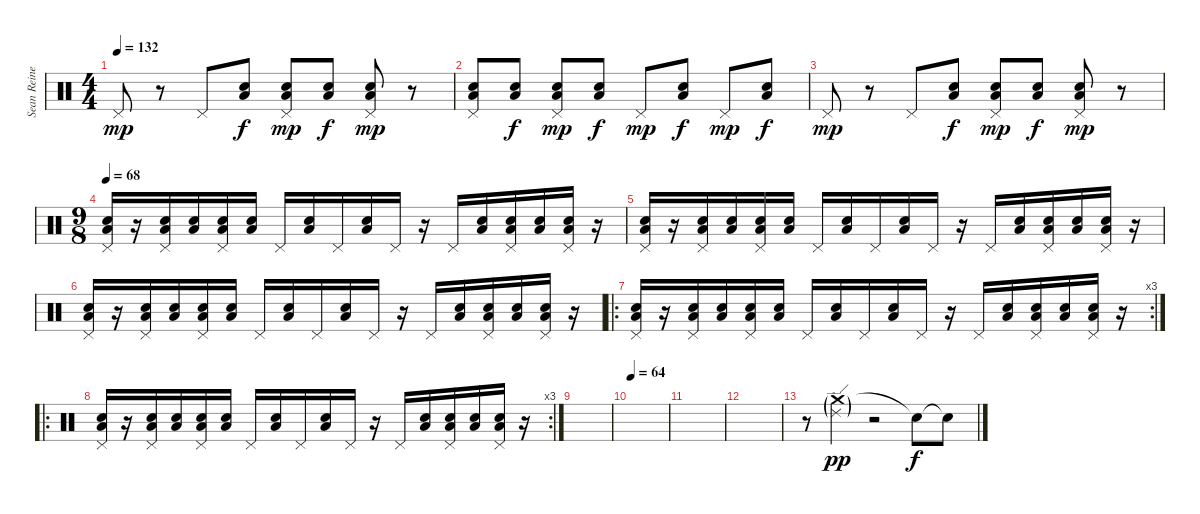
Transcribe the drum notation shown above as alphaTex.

\track ("Sean Reinert" "Sean Reine") {instrument percussion}
\staff {score}
\articulation defaults
\ts (4 4)
\tempo 132
\clef neutral
\ks c "Pedal Hi-Hat (hit)".8{dy mp}
r.8 "Pedal Hi-Hat (hit)".8 ("Snare (hit) 2" "Low Tom (hit)").8{dy f} ("Snare (hit) 2" "Low Tom (hit)" "Pedal Hi-Hat (hit)").8{dy mp} ("Snare (hit) 2" "Low Tom (hit)").8{dy f} ("Snare (hit) 2" "Low Tom (hit)" "Pedal Hi-Hat (hit)").8{dy mp} r.8 |
("Snare (hit) 2" "Low Tom (hit)" "Pedal Hi-Hat (hit)").8 ("Snare (hit) 2" "Low Tom (hit)").8{dy f} ("Snare (hit) 2" "Low Tom (hit)" "Pedal Hi-Hat (hit)").8{dy mp} ("Snare (hit) 2" "Low Tom (hit)").8{dy f} "Pedal Hi-Hat (hit)".8{dy mp} ("Snare (hit) 2" "Low Tom (hit)").8{dy f} "Pedal Hi-Hat (hit)".8{dy mp} ("Snare (hit) 2" "Low Tom (hit)").8{dy f} |
"Pedal Hi-Hat (hit)".8{dy mp} r.8 "Pedal Hi-Hat (hit)".8 ("Snare (hit) 2" "Low Tom (hit)").8{dy f} ("Snare (hit) 2" "Low Tom (hit)" "Pedal Hi-Hat (hit)").8{dy mp} ("Snare (hit) 2" "Low Tom (hit)").8{dy f} ("Snare (hit) 2" "Low Tom (hit)" "Pedal Hi-Hat (hit)").8{dy mp} r.8 |
\ts (9 8)
\tempo 68
("Snare (hit) 2" "Low Tom (hit)" "Pedal Hi-Hat (hit)").16 r.16 ("Snare (hit) 2" "Low Tom (hit)" "Pedal Hi-Hat (hit)").16 ("Snare (hit) 2" "Low Tom (hit)").16 ("Snare (hit) 2" "Low Tom (hit)" "Pedal Hi-Hat (hit)").16 ("Snare (hit) 2" "Low Tom (hit)").16 "Pedal Hi-Hat (hit)".16 ("Snare (hit) 2" "Low Tom (hit)").16 "Pedal Hi-Hat (hit)".16 ("Snare (hit) 2" "Low Tom (hit)").16 "Pedal Hi-Hat (hit)".16 r.16 "Pedal Hi-Hat (hit)".16 ("Snare (hit) 2" "Low Tom (hit)").16 ("Snare (hit) 2" "Low Tom (hit)" "Pedal Hi-Hat (hit)").16 ("Snare (hit) 2" "Low Tom (hit)").16 ("Snare (hit) 2" "Low Tom (hit)" "Pedal Hi-Hat (hit)").16 r.16 |
("Snare (hit) 2" "Low Tom (hit)" "Pedal Hi-Hat (hit)").16 r.16 ("Snare (hit) 2" "Low Tom (hit)" "Pedal Hi-Hat (hit)").16 ("Snare (hit) 2" "Low Tom (hit)").16 ("Snare (hit) 2" "Low Tom (hit)" "Pedal Hi-Hat (hit)").16 ("Snare (hit) 2" "Low Tom (hit)").16 "Pedal Hi-Hat (hit)".16 ("Snare (hit) 2" "Low Tom (hit)").16 "Pedal Hi-Hat (hit)".16 ("Snare (hit) 2" "Low Tom (hit)").16 "Pedal Hi-Hat (hit)".16 r.16 "Pedal Hi-Hat (hit)".16 ("Snare (hit) 2" "Low Tom (hit)").16 ("Snare (hit) 2" "Low Tom (hit)" "Pedal Hi-Hat (hit)").16 ("Snare (hit) 2" "Low Tom (hit)").16 ("Snare (hit) 2" "Low Tom (hit)" "Pedal Hi-Hat (hit)").16 r.16 |
("Snare (hit) 2" "Low Tom (hit)" "Pedal Hi-Hat (hit)").16 r.16 ("Snare (hit) 2" "Low Tom (hit)" "Pedal Hi-Hat (hit)").16 ("Snare (hit) 2" "Low Tom (hit)").16 ("Snare (hit) 2" "Low Tom (hit)" "Pedal Hi-Hat (hit)").16 ("Snare (hit) 2" "Low Tom (hit)").16 "Pedal Hi-Hat (hit)".16 ("Snare (hit) 2" "Low Tom (hit)").16 "Pedal Hi-Hat (hit)".16 ("Snare (hit) 2" "Low Tom (hit)").16 "Pedal Hi-Hat (hit)".16 r.16 "Pedal Hi-Hat (hit)".16 ("Snare (hit) 2" "Low Tom (hit)").16 ("Snare (hit) 2" "Low Tom (hit)" "Pedal Hi-Hat (hit)").16 ("Snare (hit) 2" "Low Tom (hit)").16 ("Snare (hit) 2" "Low Tom (hit)" "Pedal Hi-Hat (hit)").16 r.16 |
\ro
\rc 3
("Snare (hit) 2" "Low Tom (hit)" "Pedal Hi-Hat (hit)").16{volume 2} r.16 ("Snare (hit) 2" "Low Tom (hit)" "Pedal Hi-Hat (hit)").16 ("Snare (hit) 2" "Low Tom (hit)").16 ("Snare (hit) 2" "Low Tom (hit)" "Pedal Hi-Hat (hit)").16 ("Snare (hit) 2" "Low Tom (hit)").16 "Pedal Hi-Hat (hit)".16 ("Snare (hit) 2" "Low Tom (hit)").16 "Pedal Hi-Hat (hit)".16 ("Snare (hit) 2" "Low Tom (hit)").16 "Pedal Hi-Hat (hit)".16 r.16 "Pedal Hi-Hat (hit)".16 ("Snare (hit) 2" "Low Tom (hit)").16 ("Snare (hit) 2" "Low Tom (hit)" "Pedal Hi-Hat (hit)").16 ("Snare (hit) 2" "Low Tom (hit)").16 ("Snare (hit) 2" "Low Tom (hit)" "Pedal Hi-Hat (hit)").16 r.16 |
\ro
\rc 3
("Snare (hit) 2" "Low Tom (hit)" "Pedal Hi-Hat (hit)").16{volume 0} r.16 ("Snare (hit) 2" "Low Tom (hit)" "Pedal Hi-Hat (hit)").16 ("Snare (hit) 2" "Low Tom (hit)").16 ("Snare (hit) 2" "Low Tom (hit)" "Pedal Hi-Hat (hit)").16 ("Snare (hit) 2" "Low Tom (hit)").16 "Pedal Hi-Hat (hit)".16 ("Snare (hit) 2" "Low Tom (hit)").16 "Pedal Hi-Hat (hit)".16 ("Snare (hit) 2" "Low Tom (hit)").16 "Pedal Hi-Hat (hit)".16 r.16 "Pedal Hi-Hat (hit)".16 ("Snare (hit) 2" "Low Tom (hit)").16 ("Snare (hit) 2" "Low Tom (hit)" "Pedal Hi-Hat (hit)").16 ("Snare (hit) 2" "Low Tom (hit)").16 ("Snare (hit) 2" "Low Tom (hit)" "Pedal Hi-Hat (hit)").16 r.16 |
|
\tempo 64
|
|
|
r.8{volume 2} ("Crash medium (hit)"{g} "Ride (edge) 2"{g}).4{dy pp} r.2 "Snare (hit)"{t}.8{dy f} "Snare (hit)"{t}.8
